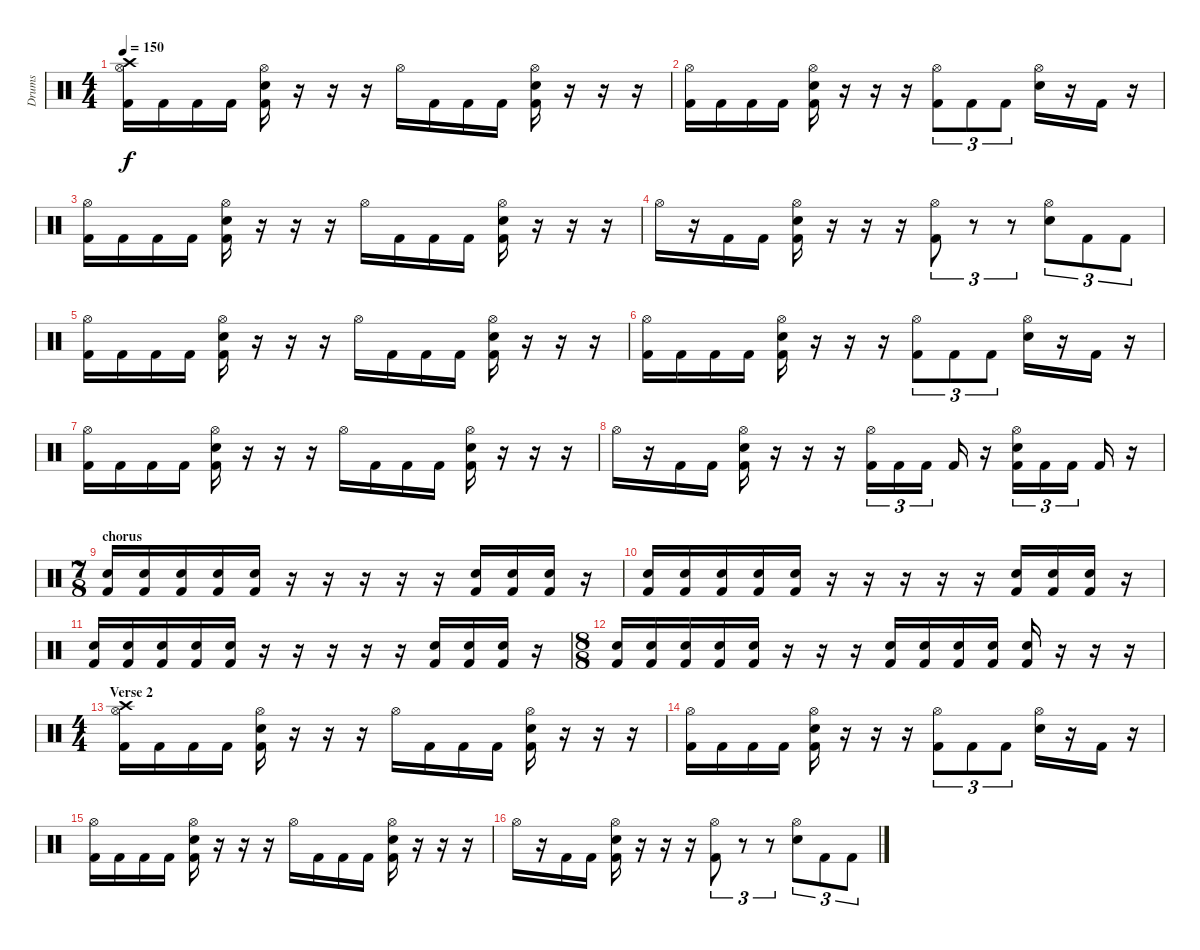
\track ("Drums" "Drums") {instrument percussion}
\staff {score}
\articulation defaults
\ts (4 4)
\tempo 150
\clef neutral
\ks c
("Hi-Hat (open)" "Crash high (hit)" "Kick (hit) 2").16{dy f} "Kick (hit) 2".16 "Kick (hit) 2".16 "Kick (hit) 2".16 ("Hi-Hat (open)" "Electric Snare (hit)" "Kick (hit) 2").16 r.16 r.16 r.16 "Hi-Hat (open)".16 "Kick (hit) 2".16 "Kick (hit) 2".16 "Kick (hit) 2".16 ("Hi-Hat (open)" "Electric Snare (hit)" "Kick (hit) 2").16 r.16 r.16 r.16 |
("Hi-Hat (open)" "Kick (hit) 2").16 "Kick (hit) 2".16 "Kick (hit) 2".16 "Kick (hit) 2".16 ("Hi-Hat (open)" "Electric Snare (hit)" "Kick (hit) 2").16 r.16 r.16 r.16 ("Hi-Hat (open)" "Kick (hit) 2").8{tu (3 2)} "Kick (hit) 2".8{tu (3 2)} "Kick (hit) 2".8{tu (3 2)} ("Hi-Hat (open)" "Electric Snare (hit)").16 r.16 "Kick (hit) 2".16 r.16 |
("Hi-Hat (open)" "Kick (hit) 2").16 "Kick (hit) 2".16 "Kick (hit) 2".16 "Kick (hit) 2".16 ("Hi-Hat (open)" "Electric Snare (hit)" "Kick (hit) 2").16 r.16 r.16 r.16 "Hi-Hat (open)".16 "Kick (hit) 2".16 "Kick (hit) 2".16 "Kick (hit) 2".16 ("Hi-Hat (open)" "Electric Snare (hit)" "Kick (hit) 2").16 r.16 r.16 r.16 |
"Hi-Hat (open)".16 r.16 "Kick (hit) 2".16 "Kick (hit) 2".16 ("Hi-Hat (open)" "Electric Snare (hit)" "Kick (hit) 2").16 r.16 r.16 r.16 ("Hi-Hat (open)" "Kick (hit) 2").8{tu (3 2)} r.8{tu (3 2)} r.8{tu (3 2)} ("Hi-Hat (open)" "Electric Snare (hit)").8{tu (3 2)} "Kick (hit) 2".8{tu (3 2)} "Kick (hit) 2".8{tu (3 2)} |
("Hi-Hat (open)" "Kick (hit) 2").16 "Kick (hit) 2".16 "Kick (hit) 2".16 "Kick (hit) 2".16 ("Hi-Hat (open)" "Electric Snare (hit)" "Kick (hit) 2").16 r.16 r.16 r.16 "Hi-Hat (open)".16 "Kick (hit) 2".16 "Kick (hit) 2".16 "Kick (hit) 2".16 ("Hi-Hat (open)" "Electric Snare (hit)" "Kick (hit) 2").16 r.16 r.16 r.16 |
("Hi-Hat (open)" "Kick (hit) 2").16 "Kick (hit) 2".16 "Kick (hit) 2".16 "Kick (hit) 2".16 ("Hi-Hat (open)" "Electric Snare (hit)" "Kick (hit) 2").16 r.16 r.16 r.16 ("Hi-Hat (open)" "Kick (hit) 2").8{tu (3 2)} "Kick (hit) 2".8{tu (3 2)} "Kick (hit) 2".8{tu (3 2)} ("Hi-Hat (open)" "Electric Snare (hit)").16 r.16 "Kick (hit) 2".16 r.16 |
("Hi-Hat (open)" "Kick (hit) 2").16 "Kick (hit) 2".16 "Kick (hit) 2".16 "Kick (hit) 2".16 ("Hi-Hat (open)" "Electric Snare (hit)" "Kick (hit) 2").16 r.16 r.16 r.16 "Hi-Hat (open)".16 "Kick (hit) 2".16 "Kick (hit) 2".16 "Kick (hit) 2".16 ("Hi-Hat (open)" "Electric Snare (hit)" "Kick (hit) 2").16 r.16 r.16 r.16 |
"Hi-Hat (open)".16 r.16 "Kick (hit) 2".16 "Kick (hit) 2".16 ("Hi-Hat (open)" "Electric Snare (hit)" "Kick (hit) 2").16 r.16 r.16 r.16 ("Hi-Hat (open)" "Kick (hit) 2").16{tu (3 2)} "Kick (hit) 2".16{tu (3 2)} "Kick (hit) 2".16{tu (3 2)} "Kick (hit) 2".16 r.16 ("Hi-Hat (open)" "Electric Snare (hit)" "Kick (hit) 2").16{tu (3 2)} "Kick (hit) 2".16{tu (3 2)} "Kick (hit) 2".16{tu (3 2)} "Kick (hit) 2".16 r.16 |
\ts (7 8)
\section ("" "chorus")
("Electric Snare (hit)" "Kick (hit) 2").16 ("Electric Snare (hit)" "Kick (hit) 2").16 ("Electric Snare (hit)" "Kick (hit) 2").16 ("Electric Snare (hit)" "Kick (hit) 2").16 ("Electric Snare (hit)" "Kick (hit) 2").16 r.16 r.16 r.16 r.16 r.16 ("Electric Snare (hit)" "Kick (hit) 2").16 ("Electric Snare (hit)" "Kick (hit) 2").16 ("Electric Snare (hit)" "Kick (hit) 2").16 r.16 |
("Electric Snare (hit)" "Kick (hit) 2").16 ("Electric Snare (hit)" "Kick (hit) 2").16 ("Electric Snare (hit)" "Kick (hit) 2").16 ("Electric Snare (hit)" "Kick (hit) 2").16 ("Electric Snare (hit)" "Kick (hit) 2").16 r.16 r.16 r.16 r.16 r.16 ("Electric Snare (hit)" "Kick (hit) 2").16 ("Electric Snare (hit)" "Kick (hit) 2").16 ("Electric Snare (hit)" "Kick (hit) 2").16 r.16 |
("Electric Snare (hit)" "Kick (hit) 2").16 ("Electric Snare (hit)" "Kick (hit) 2").16 ("Electric Snare (hit)" "Kick (hit) 2").16 ("Electric Snare (hit)" "Kick (hit) 2").16 ("Electric Snare (hit)" "Kick (hit) 2").16 r.16 r.16 r.16 r.16 r.16 ("Electric Snare (hit)" "Kick (hit) 2").16 ("Electric Snare (hit)" "Kick (hit) 2").16 ("Electric Snare (hit)" "Kick (hit) 2").16 r.16 |
\ts (8 8)
("Electric Snare (hit)" "Kick (hit) 2").16 ("Electric Snare (hit)" "Kick (hit) 2").16 ("Electric Snare (hit)" "Kick (hit) 2").16 ("Electric Snare (hit)" "Kick (hit) 2").16 ("Electric Snare (hit)" "Kick (hit) 2").16 r.16 r.16 r.16 ("Electric Snare (hit)" "Kick (hit) 2").16 ("Electric Snare (hit)" "Kick (hit) 2").16 ("Electric Snare (hit)" "Kick (hit) 2").16 ("Electric Snare (hit)" "Kick (hit) 2").16 ("Electric Snare (hit)" "Kick (hit) 2").16 r.16 r.16 r.16 |
\ts (4 4)
\section ("" "Verse 2")
("Hi-Hat (open)" "Crash high (hit)" "Kick (hit) 2").16 "Kick (hit) 2".16 "Kick (hit) 2".16 "Kick (hit) 2".16 ("Hi-Hat (open)" "Electric Snare (hit)" "Kick (hit) 2").16 r.16 r.16 r.16 "Hi-Hat (open)".16 "Kick (hit) 2".16 "Kick (hit) 2".16 "Kick (hit) 2".16 ("Hi-Hat (open)" "Electric Snare (hit)" "Kick (hit) 2").16 r.16 r.16 r.16 |
("Hi-Hat (open)" "Kick (hit) 2").16 "Kick (hit) 2".16 "Kick (hit) 2".16 "Kick (hit) 2".16 ("Hi-Hat (open)" "Electric Snare (hit)" "Kick (hit) 2").16 r.16 r.16 r.16 ("Hi-Hat (open)" "Kick (hit) 2").8{tu (3 2)} "Kick (hit) 2".8{tu (3 2)} "Kick (hit) 2".8{tu (3 2)} ("Hi-Hat (open)" "Electric Snare (hit)").16 r.16 "Kick (hit) 2".16 r.16 |
("Hi-Hat (open)" "Kick (hit) 2").16 "Kick (hit) 2".16 "Kick (hit) 2".16 "Kick (hit) 2".16 ("Hi-Hat (open)" "Electric Snare (hit)" "Kick (hit) 2").16 r.16 r.16 r.16 "Hi-Hat (open)".16 "Kick (hit) 2".16 "Kick (hit) 2".16 "Kick (hit) 2".16 ("Hi-Hat (open)" "Electric Snare (hit)" "Kick (hit) 2").16 r.16 r.16 r.16 |
"Hi-Hat (open)".16 r.16 "Kick (hit) 2".16 "Kick (hit) 2".16 ("Hi-Hat (open)" "Electric Snare (hit)" "Kick (hit) 2").16 r.16 r.16 r.16 ("Hi-Hat (open)" "Kick (hit) 2").8{tu (3 2)} r.8{tu (3 2)} r.8{tu (3 2)} ("Hi-Hat (open)" "Electric Snare (hit)").8{tu (3 2)} "Kick (hit) 2".8{tu (3 2)} "Kick (hit) 2".8{tu (3 2)}
